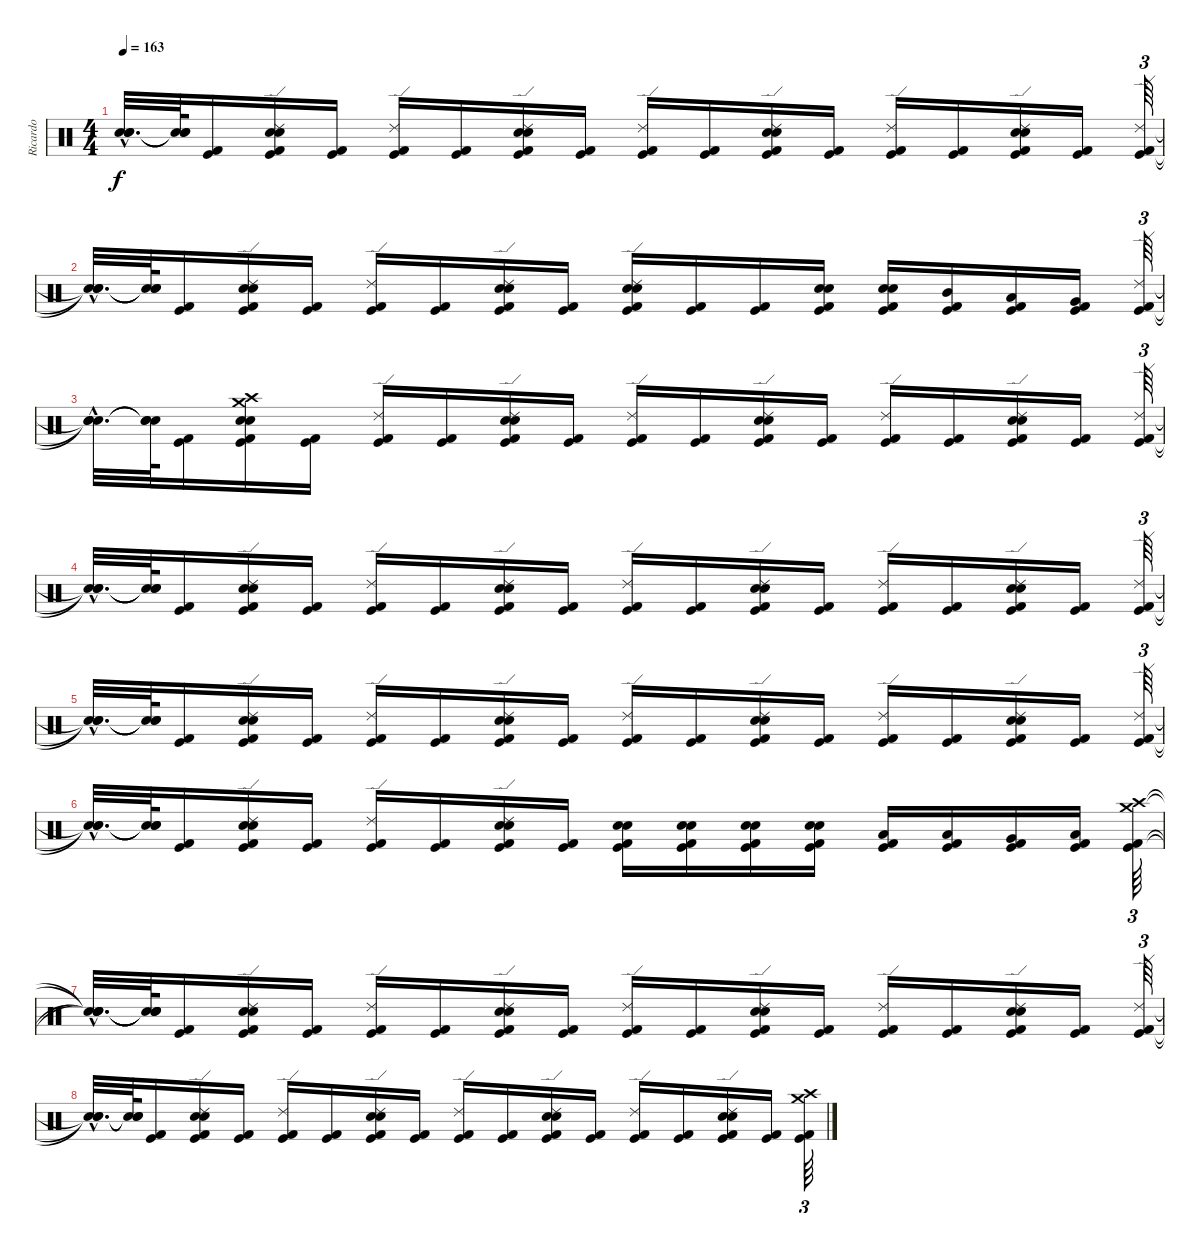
\track ("Ricardo" "Ricardo") {instrument percussion}
\staff {score}
\articulation defaults
\ts (4 4)
\tempo 163
\clef neutral
\ks c
("Snare (hit)"{hac t} "Snare (hit)"{hac t} "Snare (hit)"{hac t}).32{d dy f} ("Snare (hit)"{t} "Snare (hit)"{t} "Snare (hit)"{t}).64 ("Kick (hit) 2" "Kick (hit)").16 ("Ride (edge) 2" "Electric Snare (hit)" "Snare (hit) 2" "Kick (hit) 2" "Kick (hit)").16 ("Kick (hit) 2" "Kick (hit)").16 ("Ride (edge) 2" "Kick (hit) 2" "Kick (hit)").16 ("Kick (hit) 2" "Kick (hit)").16 ("Ride (edge) 2" "Electric Snare (hit)" "Snare (hit) 2" "Kick (hit) 2" "Kick (hit)").16 ("Kick (hit) 2" "Kick (hit)").16 ("Ride (edge) 2" "Kick (hit) 2" "Kick (hit)").16 ("Kick (hit) 2" "Kick (hit)").16 ("Ride (edge) 2" "Electric Snare (hit)" "Snare (hit) 2" "Kick (hit) 2" "Kick (hit)").16 ("Kick (hit) 2" "Kick (hit)").16 ("Ride (edge) 2" "Kick (hit) 2" "Kick (hit)").16 ("Kick (hit) 2" "Kick (hit)").16 ("Ride (edge) 2" "Electric Snare (hit)" "Snare (hit) 2" "Kick (hit) 2" "Kick (hit)").16 ("Kick (hit) 2" "Kick (hit)").16 ("Ride (edge) 2" "Kick (hit) 2" "Kick (hit)").64{tu (3 2)} |
("Snare (hit)"{hac t} "Snare (hit)"{hac t} "Snare (hit)"{hac t}).32{d} ("Snare (hit)"{t} "Snare (hit)"{t} "Snare (hit)"{t}).64 ("Kick (hit) 2" "Kick (hit)").16 ("Ride (edge) 2" "Electric Snare (hit)" "Snare (hit) 2" "Kick (hit) 2" "Kick (hit)").16 ("Kick (hit) 2" "Kick (hit)").16 ("Ride (edge) 2" "Kick (hit) 2" "Kick (hit)").16 ("Kick (hit) 2" "Kick (hit)").16 ("Ride (edge) 2" "Electric Snare (hit)" "Snare (hit) 2" "Kick (hit) 2" "Kick (hit)").16 ("Kick (hit) 2" "Kick (hit)").16 ("Electric Snare (hit)" "Snare (hit) 2" "Ride (edge) 2" "Kick (hit) 2" "Kick (hit)").16 ("Kick (hit) 2" "Kick (hit)").16 ("Kick (hit) 2" "Kick (hit)").16 ("Electric Snare (hit)" "Snare (hit) 2" "Kick (hit) 2" "Kick (hit)").16 ("Electric Snare (hit)" "Snare (hit) 2" "Kick (hit) 2" "Kick (hit)").16 ("Mid Tom (hit)" "Kick (hit) 2" "Kick (hit)").16 ("Low Tom (hit)" "Kick (hit) 2" "Kick (hit)").16 ("Very Low Tom (hit)" "Kick (hit) 2" "Kick (hit)").16 ("Ride (edge) 2" "Kick (hit) 2" "Kick (hit)").64{tu (3 2)} |
("Snare (hit)"{hac t} "Snare (hit)"{hac t} "Snare (hit)"{hac t}).32{d} ("Snare (hit)"{t} "Snare (hit)"{t} "Snare (hit)"{t}).64 ("Kick (hit) 2" "Kick (hit)").16 ("Crash high (hit)" "Crash medium (hit)" "Electric Snare (hit)" "Snare (hit) 2" "Kick (hit) 2" "Kick (hit)").16 ("Kick (hit) 2" "Kick (hit)").16 ("Ride (edge) 2" "Kick (hit) 2" "Kick (hit)").16 ("Kick (hit) 2" "Kick (hit)").16 ("Ride (edge) 2" "Electric Snare (hit)" "Snare (hit) 2" "Kick (hit) 2" "Kick (hit)").16 ("Kick (hit) 2" "Kick (hit)").16 ("Ride (edge) 2" "Kick (hit) 2" "Kick (hit)").16 ("Kick (hit) 2" "Kick (hit)").16 ("Ride (edge) 2" "Electric Snare (hit)" "Snare (hit) 2" "Kick (hit) 2" "Kick (hit)").16 ("Kick (hit) 2" "Kick (hit)").16 ("Ride (edge) 2" "Kick (hit) 2" "Kick (hit)").16 ("Kick (hit) 2" "Kick (hit)").16 ("Ride (edge) 2" "Electric Snare (hit)" "Snare (hit) 2" "Kick (hit) 2" "Kick (hit)").16 ("Kick (hit) 2" "Kick (hit)").16 ("Ride (edge) 2" "Kick (hit) 2" "Kick (hit)").64{tu (3 2)} |
("Snare (hit)"{hac t} "Snare (hit)"{hac t} "Snare (hit)"{hac t}).32{d} ("Snare (hit)"{t} "Snare (hit)"{t} "Snare (hit)"{t}).64 ("Kick (hit) 2" "Kick (hit)").16 ("Ride (edge) 2" "Electric Snare (hit)" "Snare (hit) 2" "Kick (hit) 2" "Kick (hit)").16 ("Kick (hit) 2" "Kick (hit)").16 ("Ride (edge) 2" "Kick (hit) 2" "Kick (hit)").16 ("Kick (hit) 2" "Kick (hit)").16 ("Ride (edge) 2" "Electric Snare (hit)" "Snare (hit) 2" "Kick (hit) 2" "Kick (hit)").16 ("Kick (hit) 2" "Kick (hit)").16 ("Ride (edge) 2" "Kick (hit) 2" "Kick (hit)").16 ("Kick (hit) 2" "Kick (hit)").16 ("Ride (edge) 2" "Electric Snare (hit)" "Snare (hit) 2" "Kick (hit) 2" "Kick (hit)").16 ("Kick (hit) 2" "Kick (hit)").16 ("Ride (edge) 2" "Kick (hit) 2" "Kick (hit)").16 ("Kick (hit) 2" "Kick (hit)").16 ("Ride (edge) 2" "Electric Snare (hit)" "Snare (hit) 2" "Kick (hit) 2" "Kick (hit)").16 ("Kick (hit) 2" "Kick (hit)").16 ("Ride (edge) 2" "Kick (hit) 2" "Kick (hit)").64{tu (3 2)} |
("Snare (hit)"{hac t} "Snare (hit)"{hac t} "Snare (hit)"{hac t}).32{d} ("Snare (hit)"{t} "Snare (hit)"{t} "Snare (hit)"{t}).64 ("Kick (hit) 2" "Kick (hit)").16 ("Ride (edge) 2" "Electric Snare (hit)" "Snare (hit) 2" "Kick (hit) 2" "Kick (hit)").16 ("Kick (hit) 2" "Kick (hit)").16 ("Ride (edge) 2" "Kick (hit) 2" "Kick (hit)").16 ("Kick (hit) 2" "Kick (hit)").16 ("Ride (edge) 2" "Electric Snare (hit)" "Snare (hit) 2" "Kick (hit) 2" "Kick (hit)").16 ("Kick (hit) 2" "Kick (hit)").16 ("Ride (edge) 2" "Kick (hit) 2" "Kick (hit)").16 ("Kick (hit) 2" "Kick (hit)").16 ("Ride (edge) 2" "Electric Snare (hit)" "Snare (hit) 2" "Kick (hit) 2" "Kick (hit)").16 ("Kick (hit) 2" "Kick (hit)").16 ("Ride (edge) 2" "Kick (hit) 2" "Kick (hit)").16 ("Kick (hit) 2" "Kick (hit)").16 ("Ride (edge) 2" "Electric Snare (hit)" "Snare (hit) 2" "Kick (hit) 2" "Kick (hit)").16 ("Kick (hit) 2" "Kick (hit)").16 ("Ride (edge) 2" "Kick (hit) 2" "Kick (hit)").64{tu (3 2)} |
("Snare (hit)"{hac t} "Snare (hit)"{hac t} "Snare (hit)"{hac t}).32{d} ("Snare (hit)"{t} "Snare (hit)"{t} "Snare (hit)"{t}).64 ("Kick (hit) 2" "Kick (hit)").16 ("Ride (edge) 2" "Electric Snare (hit)" "Snare (hit) 2" "Kick (hit) 2" "Kick (hit)").16 ("Kick (hit) 2" "Kick (hit)").16 ("Ride (edge) 2" "Kick (hit) 2" "Kick (hit)").16 ("Kick (hit) 2" "Kick (hit)").16 ("Ride (edge) 2" "Electric Snare (hit)" "Snare (hit) 2" "Kick (hit) 2" "Kick (hit)").16 ("Kick (hit) 2" "Kick (hit)").16 ("Electric Snare (hit)" "Snare (hit) 2" "Kick (hit) 2" "Kick (hit)").16 ("Electric Snare (hit)" "Snare (hit) 2" "Kick (hit) 2" "Kick (hit)").16 ("Electric Snare (hit)" "Snare (hit) 2" "Kick (hit) 2" "Kick (hit)").16 ("Electric Snare (hit)" "Snare (hit) 2" "Kick (hit) 2" "Kick (hit)").16 ("Low Tom (hit)" "Kick (hit) 2" "Kick (hit)").16 ("Low Tom (hit)" "Kick (hit) 2" "Kick (hit)").16 ("Very Low Tom (hit)" "Kick (hit) 2" "Kick (hit)").16 ("Low Floor Tom (hit)" "Kick (hit) 2" "Kick (hit)").16 ("Crash high (hit)" "Crash medium (hit)" "Kick (hit) 2" "Kick (hit)").64{tu (3 2)} |
("Snare (hit)"{hac t} "Snare (hit)"{hac t} "Snare (hit)"{hac t} "Snare (hit)"{hac t}).32{d} ("Snare (hit)"{t} "Snare (hit)"{t} "Snare (hit)"{t} "Snare (hit)"{t}).64 ("Kick (hit) 2" "Kick (hit)").16 ("Ride (edge) 2" "Electric Snare (hit)" "Snare (hit) 2" "Kick (hit) 2" "Kick (hit)").16 ("Kick (hit) 2" "Kick (hit)").16 ("Ride (edge) 2" "Kick (hit) 2" "Kick (hit)").16 ("Kick (hit) 2" "Kick (hit)").16 ("Ride (edge) 2" "Electric Snare (hit)" "Snare (hit) 2" "Kick (hit) 2" "Kick (hit)").16 ("Kick (hit) 2" "Kick (hit)").16 ("Ride (edge) 2" "Kick (hit) 2" "Kick (hit)").16 ("Kick (hit) 2" "Kick (hit)").16 ("Ride (edge) 2" "Electric Snare (hit)" "Snare (hit) 2" "Kick (hit) 2" "Kick (hit)").16 ("Kick (hit) 2" "Kick (hit)").16 ("Ride (edge) 2" "Kick (hit) 2" "Kick (hit)").16 ("Kick (hit) 2" "Kick (hit)").16 ("Ride (edge) 2" "Electric Snare (hit)" "Snare (hit) 2" "Kick (hit) 2" "Kick (hit)").16 ("Kick (hit) 2" "Kick (hit)").16 ("Ride (edge) 2" "Kick (hit) 2" "Kick (hit)").64{tu (3 2)} |
("Snare (hit)"{hac t} "Snare (hit)"{hac t} "Snare (hit)"{hac t}).32{d} ("Snare (hit)"{t} "Snare (hit)"{t} "Snare (hit)"{t}).64 ("Kick (hit) 2" "Kick (hit)").16 ("Ride (edge) 2" "Electric Snare (hit)" "Snare (hit) 2" "Kick (hit) 2" "Kick (hit)").16 ("Kick (hit) 2" "Kick (hit)").16 ("Ride (edge) 2" "Kick (hit) 2" "Kick (hit)").16 ("Kick (hit) 2" "Kick (hit)").16 ("Ride (edge) 2" "Electric Snare (hit)" "Snare (hit) 2" "Kick (hit) 2" "Kick (hit)").16 ("Kick (hit) 2" "Kick (hit)").16 ("Ride (edge) 2" "Kick (hit) 2" "Kick (hit)").16 ("Kick (hit) 2" "Kick (hit)").16 ("Ride (edge) 2" "Electric Snare (hit)" "Snare (hit) 2" "Kick (hit) 2" "Kick (hit)").16 ("Kick (hit) 2" "Kick (hit)").16 ("Ride (edge) 2" "Kick (hit) 2" "Kick (hit)").16 ("Kick (hit) 2" "Kick (hit)").16 ("Ride (edge) 2" "Electric Snare (hit)" "Snare (hit) 2" "Kick (hit) 2" "Kick (hit)").16 ("Kick (hit) 2" "Kick (hit)").16 ("Crash high (hit)" "Crash medium (hit)" "Kick (hit) 2" "Kick (hit)").64{tu (3 2)}
